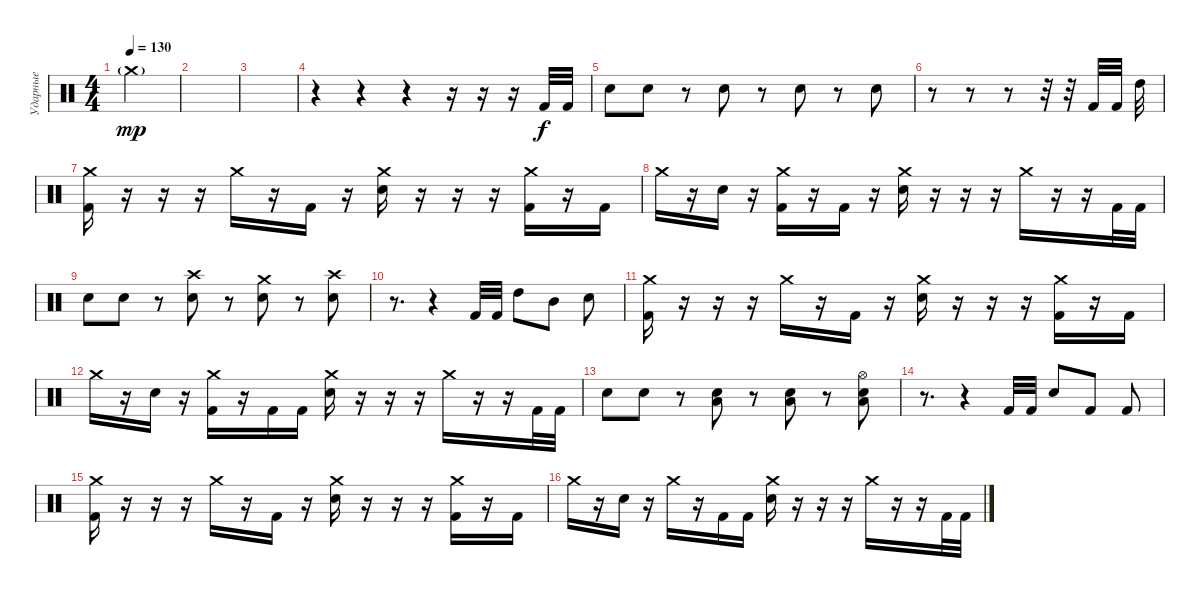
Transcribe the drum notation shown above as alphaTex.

\track ("Ударные" "Ударные") {instrument percussion}
\staff {score}
\articulation defaults
\ts (4 4)
\tempo 130
\clef neutral
\ks c "Crash medium (hit)"{g}.4{dy mp}
|
|
|
r.4 r.4 r.4 r.16 r.16 r.16 "Kick (hit) 2".32{dy f} "Kick (hit) 2".32 |
"Electric Snare (hit)".8 "Electric Snare (hit)".8 r.8 "Electric Snare (hit)".8 r.8 "Electric Snare (hit)".8 r.8 "Electric Snare (hit)".8 |
r.8 r.8 r.8 r.32 r.32 "Kick (hit) 2".32 "Kick (hit) 2".32 "High Tom (hit)".32 |
("Crash medium (hit)" "Kick (hit) 2").16 r.16 r.16 r.16 "Crash medium (hit)".16 r.16 "Kick (hit) 2".16 r.16 ("Crash medium (hit)" "Electric Snare (hit)").16 r.16 r.16 r.16 ("Crash medium (hit)" "Kick (hit) 2").16 r.16 "Kick (hit) 2".16 |
"Crash medium (hit)".16 r.16 "Electric Snare (hit)".16 r.16 ("Crash medium (hit)" "Kick (hit) 2").16 r.16 "Kick (hit) 2".16 r.16 ("Crash medium (hit)" "Electric Snare (hit)").16 r.16 r.16 r.16 "Crash medium (hit)".16 r.16 r.16 "Kick (hit) 2".32 "Kick (hit) 2".32 |
"Electric Snare (hit)".8 "Electric Snare (hit)".8 r.8 ("Crash high (hit)" "Electric Snare (hit)").8 r.8 ("Crash medium (hit)" "Electric Snare (hit)").8 r.8 ("Crash high (hit)" "Electric Snare (hit)").8 |
r.8{d} r.4 "Kick (hit) 2".32 "Kick (hit) 2".32 "High Tom (hit)".8 "Mid Tom (hit)".8 "Electric Snare (hit)".8 |
("Crash medium (hit)" "Kick (hit) 2").16 r.16 r.16 r.16 "Crash medium (hit)".16 r.16 "Kick (hit) 2".16 r.16 ("Crash medium (hit)" "Electric Snare (hit)").16 r.16 r.16 r.16 ("Crash medium (hit)" "Kick (hit) 2").16 r.16 "Kick (hit) 2".16 |
"Crash medium (hit)".16 r.16 "Electric Snare (hit)".16 r.16 ("Crash medium (hit)" "Kick (hit) 2").16 r.16 "Kick (hit) 2".16 "Kick (hit) 2".16 ("Crash medium (hit)" "Electric Snare (hit)").16 r.16 r.16 r.16 "Crash medium (hit)".16 r.16 r.16 "Kick (hit) 2".32 "Kick (hit) 2".32 |
"Electric Snare (hit)".8 "Electric Snare (hit)".8 r.8 ("Low Tom (hit)" "Electric Snare (hit)").8 r.8 ("Low Tom (hit)" "Electric Snare (hit)").8 r.8 ("Hi-Hat (open)" "Low Tom (hit)" "Electric Snare (hit)").8 |
r.8{d} r.4 "Kick (hit) 2".32 "Kick (hit) 2".32 "Electric Snare (hit)".8 "Kick (hit) 2".8 "Kick (hit) 2".8 |
("Crash medium (hit)" "Kick (hit) 2").16 r.16 r.16 r.16 "Crash medium (hit)".16 r.16 "Kick (hit) 2".16 r.16 ("Crash medium (hit)" "Electric Snare (hit)").16 r.16 r.16 r.16 ("Crash medium (hit)" "Kick (hit) 2").16 r.16 "Kick (hit) 2".16 |
"Crash medium (hit)".16 r.16 "Electric Snare (hit)".16 r.16 "Crash medium (hit)".16 r.16 "Kick (hit) 2".16 "Kick (hit) 2".16 ("Crash medium (hit)" "Electric Snare (hit)").16 r.16 r.16 r.16 "Crash medium (hit)".16 r.16 r.16 "Kick (hit) 2".32 "Kick (hit) 2".32
